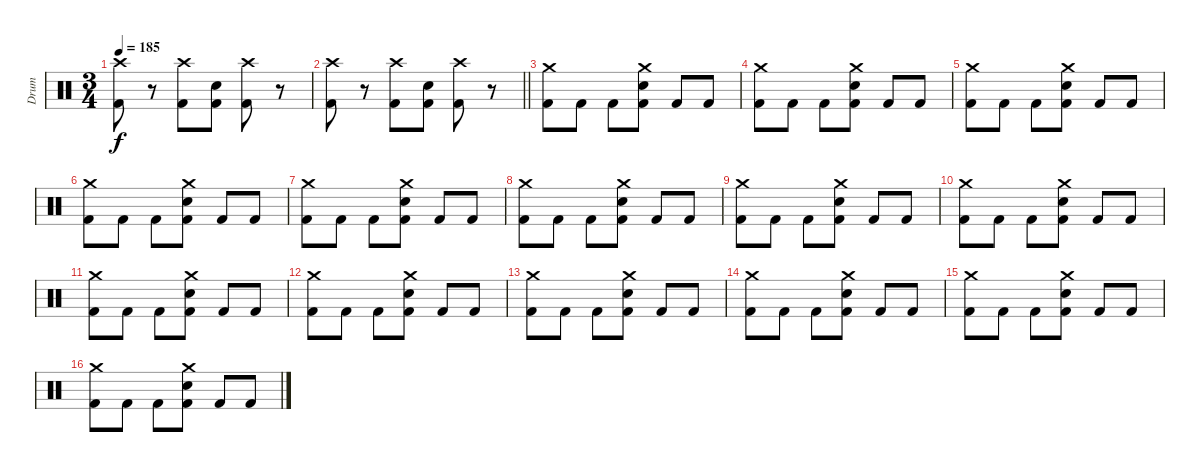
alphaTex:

\track ("Drum" "Drum") {instrument percussion}
\staff {score}
\articulation defaults
\ts (3 4)
\tempo 185
\clef neutral
\ks c
("Crash high (hit)" "Kick (hit) 2").8{dy f} r.8 ("Crash high (hit)" "Kick (hit) 2").8 ("Electric Snare (hit)" "Kick (hit) 2").8 ("Crash high (hit)" "Kick (hit) 2").8 r.8 |
\barLineRight lightlight
("Crash high (hit)" "Kick (hit) 2").8 r.8 ("Crash high (hit)" "Kick (hit) 2").8 ("Electric Snare (hit)" "Kick (hit) 2").8 ("Crash high (hit)" "Kick (hit) 2").8 r.8 |
("Crash medium (hit)" "Kick (hit) 2").8 "Kick (hit) 2".8 "Kick (hit) 2".8 ("Crash medium (hit)" "Electric Snare (hit)" "Kick (hit) 2").8 "Kick (hit) 2".8 "Kick (hit) 2".8 |
("Crash medium (hit)" "Kick (hit) 2").8 "Kick (hit) 2".8 "Kick (hit) 2".8 ("Crash medium (hit)" "Electric Snare (hit)" "Kick (hit) 2").8 "Kick (hit) 2".8 "Kick (hit) 2".8 |
("Crash medium (hit)" "Kick (hit) 2").8 "Kick (hit) 2".8 "Kick (hit) 2".8 ("Crash medium (hit)" "Electric Snare (hit)" "Kick (hit) 2").8 "Kick (hit) 2".8 "Kick (hit) 2".8 |
("Crash medium (hit)" "Kick (hit) 2").8 "Kick (hit) 2".8 "Kick (hit) 2".8 ("Crash medium (hit)" "Electric Snare (hit)" "Kick (hit) 2").8 "Kick (hit) 2".8 "Kick (hit) 2".8 |
("Crash medium (hit)" "Kick (hit) 2").8 "Kick (hit) 2".8 "Kick (hit) 2".8 ("Crash medium (hit)" "Electric Snare (hit)" "Kick (hit) 2").8 "Kick (hit) 2".8 "Kick (hit) 2".8 |
("Crash medium (hit)" "Kick (hit) 2").8 "Kick (hit) 2".8 "Kick (hit) 2".8 ("Crash medium (hit)" "Electric Snare (hit)" "Kick (hit) 2").8 "Kick (hit) 2".8 "Kick (hit) 2".8 |
("Crash medium (hit)" "Kick (hit) 2").8 "Kick (hit) 2".8 "Kick (hit) 2".8 ("Crash medium (hit)" "Electric Snare (hit)" "Kick (hit) 2").8 "Kick (hit) 2".8 "Kick (hit) 2".8 |
("Crash medium (hit)" "Kick (hit) 2").8 "Kick (hit) 2".8 "Kick (hit) 2".8 ("Crash medium (hit)" "Electric Snare (hit)" "Kick (hit) 2").8 "Kick (hit) 2".8 "Kick (hit) 2".8 |
("Crash medium (hit)" "Kick (hit) 2").8 "Kick (hit) 2".8 "Kick (hit) 2".8 ("Crash medium (hit)" "Electric Snare (hit)" "Kick (hit) 2").8 "Kick (hit) 2".8 "Kick (hit) 2".8 |
("Crash medium (hit)" "Kick (hit) 2").8 "Kick (hit) 2".8 "Kick (hit) 2".8 ("Crash medium (hit)" "Electric Snare (hit)" "Kick (hit) 2").8 "Kick (hit) 2".8 "Kick (hit) 2".8 |
("Crash medium (hit)" "Kick (hit) 2").8 "Kick (hit) 2".8 "Kick (hit) 2".8 ("Crash medium (hit)" "Electric Snare (hit)" "Kick (hit) 2").8 "Kick (hit) 2".8 "Kick (hit) 2".8 |
("Crash medium (hit)" "Kick (hit) 2").8 "Kick (hit) 2".8 "Kick (hit) 2".8 ("Crash medium (hit)" "Electric Snare (hit)" "Kick (hit) 2").8 "Kick (hit) 2".8 "Kick (hit) 2".8 |
("Crash medium (hit)" "Kick (hit) 2").8 "Kick (hit) 2".8 "Kick (hit) 2".8 ("Crash medium (hit)" "Electric Snare (hit)" "Kick (hit) 2").8 "Kick (hit) 2".8 "Kick (hit) 2".8 |
("Crash medium (hit)" "Kick (hit) 2").8 "Kick (hit) 2".8 "Kick (hit) 2".8 ("Crash medium (hit)" "Electric Snare (hit)" "Kick (hit) 2").8 "Kick (hit) 2".8 "Kick (hit) 2".8
